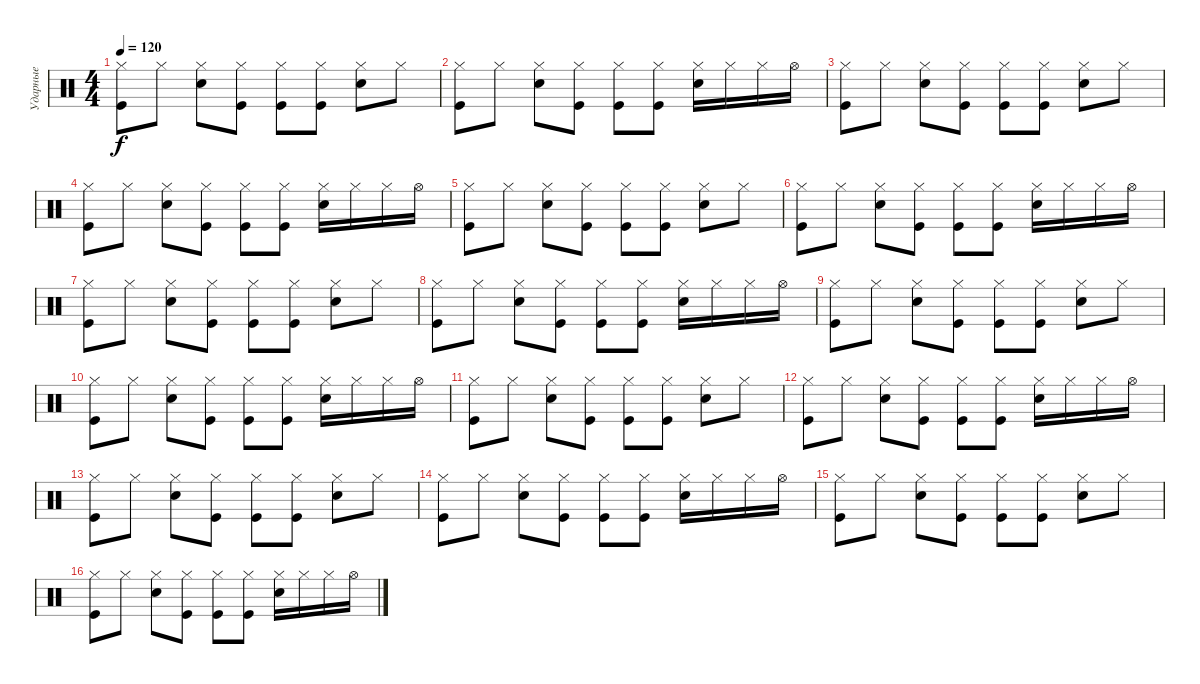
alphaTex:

\track ("Ударные" "Ударные") {instrument percussion}
\staff {score}
\articulation defaults
\ts (4 4)
\tempo 120
\clef neutral
\ks c
("Kick (hit)" "Hi-Hat (closed)").8{dy f} "Hi-Hat (closed)".8 ("Hi-Hat (closed)" "Snare (hit) 2").8 ("Hi-Hat (closed)" "Kick (hit)").8 ("Hi-Hat (closed)" "Kick (hit)").8 ("Hi-Hat (closed)" "Kick (hit)").8 ("Hi-Hat (closed)" "Snare (hit) 2").8 "Hi-Hat (closed)".8 |
("Kick (hit)" "Hi-Hat (closed)").8 "Hi-Hat (closed)".8 ("Hi-Hat (closed)" "Snare (hit) 2").8 ("Hi-Hat (closed)" "Kick (hit)").8 ("Hi-Hat (closed)" "Kick (hit)").8 ("Hi-Hat (closed)" "Kick (hit)").8 ("Hi-Hat (closed)" "Snare (hit) 2").16 "Hi-Hat (closed)".16 "Hi-Hat (closed)".16 "Hi-Hat (open)".16 |
("Kick (hit)" "Hi-Hat (closed)").8 "Hi-Hat (closed)".8 ("Hi-Hat (closed)" "Snare (hit) 2").8 ("Hi-Hat (closed)" "Kick (hit)").8 ("Hi-Hat (closed)" "Kick (hit)").8 ("Hi-Hat (closed)" "Kick (hit)").8 ("Hi-Hat (closed)" "Snare (hit) 2").8 "Hi-Hat (closed)".8 |
("Kick (hit)" "Hi-Hat (closed)").8 "Hi-Hat (closed)".8 ("Hi-Hat (closed)" "Snare (hit) 2").8 ("Hi-Hat (closed)" "Kick (hit)").8 ("Hi-Hat (closed)" "Kick (hit)").8 ("Hi-Hat (closed)" "Kick (hit)").8 ("Hi-Hat (closed)" "Snare (hit) 2").16 "Hi-Hat (closed)".16 "Hi-Hat (closed)".16 "Hi-Hat (open)".16 |
("Kick (hit)" "Hi-Hat (closed)").8 "Hi-Hat (closed)".8 ("Hi-Hat (closed)" "Snare (hit) 2").8 ("Hi-Hat (closed)" "Kick (hit)").8 ("Hi-Hat (closed)" "Kick (hit)").8 ("Hi-Hat (closed)" "Kick (hit)").8 ("Hi-Hat (closed)" "Snare (hit) 2").8 "Hi-Hat (closed)".8 |
("Kick (hit)" "Hi-Hat (closed)").8 "Hi-Hat (closed)".8 ("Hi-Hat (closed)" "Snare (hit) 2").8 ("Hi-Hat (closed)" "Kick (hit)").8 ("Hi-Hat (closed)" "Kick (hit)").8 ("Hi-Hat (closed)" "Kick (hit)").8 ("Hi-Hat (closed)" "Snare (hit) 2").16 "Hi-Hat (closed)".16 "Hi-Hat (closed)".16 "Hi-Hat (open)".16 |
("Kick (hit)" "Hi-Hat (closed)").8 "Hi-Hat (closed)".8 ("Hi-Hat (closed)" "Snare (hit) 2").8 ("Hi-Hat (closed)" "Kick (hit)").8 ("Hi-Hat (closed)" "Kick (hit)").8 ("Hi-Hat (closed)" "Kick (hit)").8 ("Hi-Hat (closed)" "Snare (hit) 2").8 "Hi-Hat (closed)".8 |
("Kick (hit)" "Hi-Hat (closed)").8 "Hi-Hat (closed)".8 ("Hi-Hat (closed)" "Snare (hit) 2").8 ("Hi-Hat (closed)" "Kick (hit)").8 ("Hi-Hat (closed)" "Kick (hit)").8 ("Hi-Hat (closed)" "Kick (hit)").8 ("Hi-Hat (closed)" "Snare (hit) 2").16 "Hi-Hat (closed)".16 "Hi-Hat (closed)".16 "Hi-Hat (open)".16 |
("Kick (hit)" "Hi-Hat (closed)").8 "Hi-Hat (closed)".8 ("Hi-Hat (closed)" "Snare (hit) 2").8 ("Hi-Hat (closed)" "Kick (hit)").8 ("Hi-Hat (closed)" "Kick (hit)").8 ("Hi-Hat (closed)" "Kick (hit)").8 ("Hi-Hat (closed)" "Snare (hit) 2").8 "Hi-Hat (closed)".8 |
("Kick (hit)" "Hi-Hat (closed)").8 "Hi-Hat (closed)".8 ("Hi-Hat (closed)" "Snare (hit) 2").8 ("Hi-Hat (closed)" "Kick (hit)").8 ("Hi-Hat (closed)" "Kick (hit)").8 ("Hi-Hat (closed)" "Kick (hit)").8 ("Hi-Hat (closed)" "Snare (hit) 2").16 "Hi-Hat (closed)".16 "Hi-Hat (closed)".16 "Hi-Hat (open)".16 |
("Kick (hit)" "Hi-Hat (closed)").8 "Hi-Hat (closed)".8 ("Hi-Hat (closed)" "Snare (hit) 2").8 ("Hi-Hat (closed)" "Kick (hit)").8 ("Hi-Hat (closed)" "Kick (hit)").8 ("Hi-Hat (closed)" "Kick (hit)").8 ("Hi-Hat (closed)" "Snare (hit) 2").8 "Hi-Hat (closed)".8 |
("Kick (hit)" "Hi-Hat (closed)").8 "Hi-Hat (closed)".8 ("Hi-Hat (closed)" "Snare (hit) 2").8 ("Hi-Hat (closed)" "Kick (hit)").8 ("Hi-Hat (closed)" "Kick (hit)").8 ("Hi-Hat (closed)" "Kick (hit)").8 ("Hi-Hat (closed)" "Snare (hit) 2").16 "Hi-Hat (closed)".16 "Hi-Hat (closed)".16 "Hi-Hat (open)".16 |
("Kick (hit)" "Hi-Hat (closed)").8 "Hi-Hat (closed)".8 ("Hi-Hat (closed)" "Snare (hit) 2").8 ("Hi-Hat (closed)" "Kick (hit)").8 ("Hi-Hat (closed)" "Kick (hit)").8 ("Hi-Hat (closed)" "Kick (hit)").8 ("Hi-Hat (closed)" "Snare (hit) 2").8 "Hi-Hat (closed)".8 |
("Kick (hit)" "Hi-Hat (closed)").8 "Hi-Hat (closed)".8 ("Hi-Hat (closed)" "Snare (hit) 2").8 ("Hi-Hat (closed)" "Kick (hit)").8 ("Hi-Hat (closed)" "Kick (hit)").8 ("Hi-Hat (closed)" "Kick (hit)").8 ("Hi-Hat (closed)" "Snare (hit) 2").16 "Hi-Hat (closed)".16 "Hi-Hat (closed)".16 "Hi-Hat (open)".16 |
("Kick (hit)" "Hi-Hat (closed)").8 "Hi-Hat (closed)".8 ("Hi-Hat (closed)" "Snare (hit) 2").8 ("Hi-Hat (closed)" "Kick (hit)").8 ("Hi-Hat (closed)" "Kick (hit)").8 ("Hi-Hat (closed)" "Kick (hit)").8 ("Hi-Hat (closed)" "Snare (hit) 2").8 "Hi-Hat (closed)".8 |
("Kick (hit)" "Hi-Hat (closed)").8 "Hi-Hat (closed)".8 ("Hi-Hat (closed)" "Snare (hit) 2").8 ("Hi-Hat (closed)" "Kick (hit)").8 ("Hi-Hat (closed)" "Kick (hit)").8 ("Hi-Hat (closed)" "Kick (hit)").8 ("Hi-Hat (closed)" "Snare (hit) 2").16 "Hi-Hat (closed)".16 "Hi-Hat (closed)".16 "Hi-Hat (open)".16
